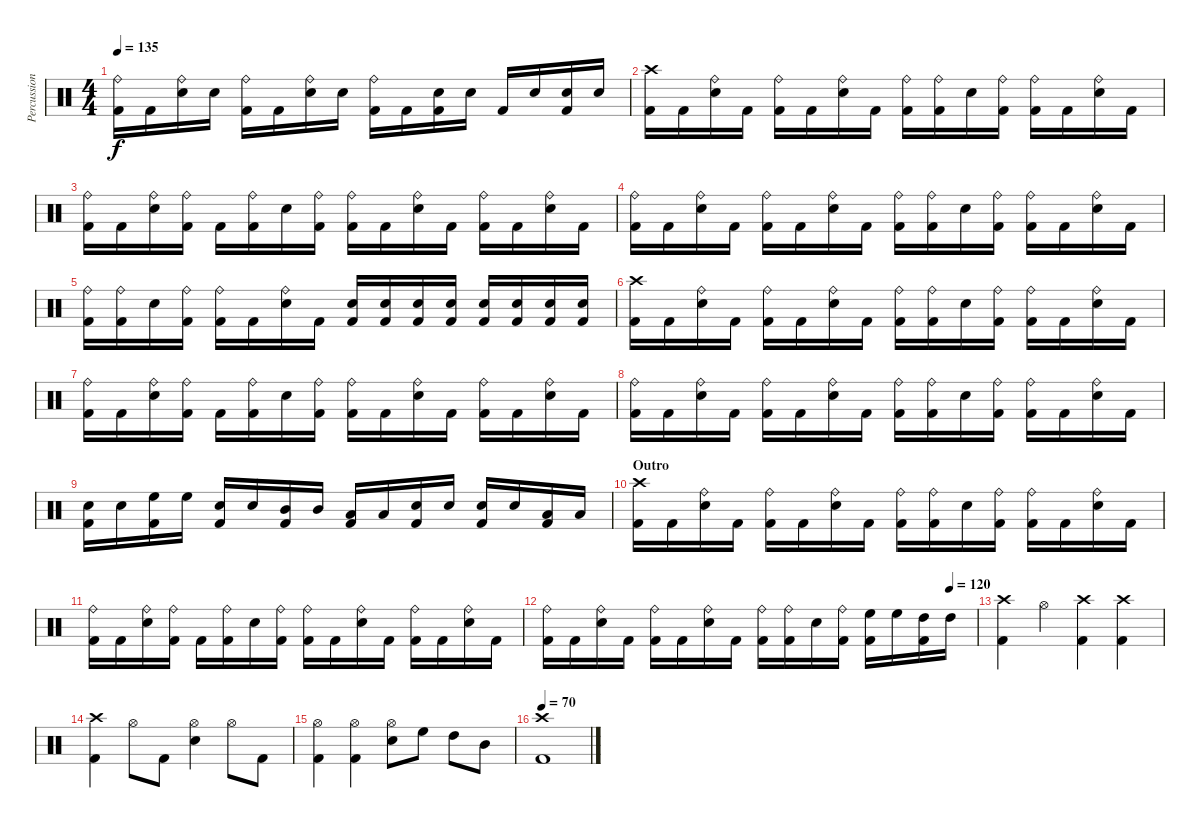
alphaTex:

\track ("Percussion" "Percussion") {instrument percussion}
\staff {score}
\articulation defaults
\ts (4 4)
\tempo 135
\clef neutral
\ks c
("Kick (hit) 2" "Ride (bell)").16{dy f} "Kick (hit) 2".16 ("Electric Snare (hit)" "Ride (bell)").16 "Electric Snare (hit)".16 ("Kick (hit) 2" "Ride (bell)").16 "Kick (hit) 2".16 ("Electric Snare (hit)" "Ride (bell)").16 "Electric Snare (hit)".16 ("Kick (hit) 2" "Ride (bell)").16 "Kick (hit) 2".16 ("Electric Snare (hit)" "Kick (hit) 2").16 "Electric Snare (hit)".16 "Kick (hit) 2".16 "Electric Snare (hit)".16 ("Electric Snare (hit)" "Kick (hit) 2").16 "Electric Snare (hit)".16 |
("Kick (hit) 2" "Crash high (hit)").16 "Kick (hit) 2".16 ("Electric Snare (hit)" "Ride (bell)").16 "Kick (hit) 2".16 ("Kick (hit) 2" "Ride (bell)").16 "Kick (hit) 2".16 ("Electric Snare (hit)" "Ride (bell)").16 "Kick (hit) 2".16 ("Kick (hit) 2" "Ride (bell)").16 ("Kick (hit) 2" "Ride (bell)").16 "Electric Snare (hit)".16 ("Kick (hit) 2" "Ride (bell)").16 ("Kick (hit) 2" "Ride (bell)").16 "Kick (hit) 2".16 ("Electric Snare (hit)" "Ride (bell)").16 "Kick (hit) 2".16 |
("Kick (hit) 2" "Ride (bell)").16 "Kick (hit) 2".16 ("Electric Snare (hit)" "Ride (bell)").16 ("Kick (hit) 2" "Ride (bell)").16 "Kick (hit) 2".16 ("Kick (hit) 2" "Ride (bell)").16 "Electric Snare (hit)".16 ("Kick (hit) 2" "Ride (bell)").16 ("Kick (hit) 2" "Ride (bell)").16 "Kick (hit) 2".16 ("Electric Snare (hit)" "Ride (bell)").16 "Kick (hit) 2".16 ("Kick (hit) 2" "Ride (bell)").16 "Kick (hit) 2".16 ("Electric Snare (hit)" "Ride (bell)").16 "Kick (hit) 2".16 |
("Kick (hit) 2" "Ride (bell)").16 "Kick (hit) 2".16 ("Electric Snare (hit)" "Ride (bell)").16 "Kick (hit) 2".16 ("Kick (hit) 2" "Ride (bell)").16 "Kick (hit) 2".16 ("Electric Snare (hit)" "Ride (bell)").16 "Kick (hit) 2".16 ("Kick (hit) 2" "Ride (bell)").16 ("Kick (hit) 2" "Ride (bell)").16 "Electric Snare (hit)".16 ("Kick (hit) 2" "Ride (bell)").16 ("Kick (hit) 2" "Ride (bell)").16 "Kick (hit) 2".16 ("Electric Snare (hit)" "Ride (bell)").16 "Kick (hit) 2".16 |
("Kick (hit) 2" "Ride (bell)").16 ("Kick (hit) 2" "Ride (bell)").16 "Electric Snare (hit)".16 ("Kick (hit) 2" "Ride (bell)").16 ("Kick (hit) 2" "Ride (bell)").16 "Kick (hit) 2".16 ("Electric Snare (hit)" "Ride (bell)").16 "Kick (hit) 2".16 ("Electric Snare (hit)" "Kick (hit) 2").16 ("Electric Snare (hit)" "Kick (hit) 2").16 ("Electric Snare (hit)" "Kick (hit) 2").16 ("Electric Snare (hit)" "Kick (hit) 2").16 ("Electric Snare (hit)" "Kick (hit) 2").16 ("Electric Snare (hit)" "Kick (hit) 2").16 ("Electric Snare (hit)" "Kick (hit) 2").16 ("Electric Snare (hit)" "Kick (hit) 2").16 |
("Kick (hit) 2" "Crash high (hit)").16 "Kick (hit) 2".16 ("Electric Snare (hit)" "Ride (bell)").16 "Kick (hit) 2".16 ("Kick (hit) 2" "Ride (bell)").16 "Kick (hit) 2".16 ("Electric Snare (hit)" "Ride (bell)").16 "Kick (hit) 2".16 ("Kick (hit) 2" "Ride (bell)").16 ("Kick (hit) 2" "Ride (bell)").16 "Electric Snare (hit)".16 ("Kick (hit) 2" "Ride (bell)").16 ("Kick (hit) 2" "Ride (bell)").16 "Kick (hit) 2".16 ("Electric Snare (hit)" "Ride (bell)").16 "Kick (hit) 2".16 |
("Kick (hit) 2" "Ride (bell)").16 "Kick (hit) 2".16 ("Electric Snare (hit)" "Ride (bell)").16 ("Kick (hit) 2" "Ride (bell)").16 "Kick (hit) 2".16 ("Kick (hit) 2" "Ride (bell)").16 "Electric Snare (hit)".16 ("Kick (hit) 2" "Ride (bell)").16 ("Kick (hit) 2" "Ride (bell)").16 "Kick (hit) 2".16 ("Electric Snare (hit)" "Ride (bell)").16 "Kick (hit) 2".16 ("Kick (hit) 2" "Ride (bell)").16 "Kick (hit) 2".16 ("Electric Snare (hit)" "Ride (bell)").16 "Kick (hit) 2".16 |
("Kick (hit) 2" "Ride (bell)").16 "Kick (hit) 2".16 ("Electric Snare (hit)" "Ride (bell)").16 "Kick (hit) 2".16 ("Kick (hit) 2" "Ride (bell)").16 "Kick (hit) 2".16 ("Electric Snare (hit)" "Ride (bell)").16 "Kick (hit) 2".16 ("Kick (hit) 2" "Ride (bell)").16 ("Kick (hit) 2" "Ride (bell)").16 "Electric Snare (hit)".16 ("Kick (hit) 2" "Ride (bell)").16 ("Kick (hit) 2" "Ride (bell)").16 "Kick (hit) 2".16 ("Electric Snare (hit)" "Ride (bell)").16 "Kick (hit) 2".16 |
("Electric Snare (hit)" "Kick (hit) 2").16 "Electric Snare (hit)".16 ("High Floor Tom (hit)" "Kick (hit) 2").16 "High Floor Tom (hit)".16 ("Electric Snare (hit)" "Kick (hit) 2").16 "Electric Snare (hit)".16 ("Mid Tom (hit)" "Kick (hit) 2").16 "Mid Tom (hit)".16 ("Low Tom (hit)" "Kick (hit) 2").16 "Low Tom (hit)".16 ("Electric Snare (hit)" "Kick (hit) 2").16 "Electric Snare (hit)".16 ("Electric Snare (hit)" "Kick (hit) 2").16 "Electric Snare (hit)".16 ("Low Tom (hit)" "Kick (hit) 2").16 "Low Tom (hit)".16 |
\section ("" "Outro")
("Kick (hit) 2" "Crash high (hit)").16 "Kick (hit) 2".16 ("Electric Snare (hit)" "Ride (bell)").16 "Kick (hit) 2".16 ("Kick (hit) 2" "Ride (bell)").16 "Kick (hit) 2".16 ("Electric Snare (hit)" "Ride (bell)").16 "Kick (hit) 2".16 ("Kick (hit) 2" "Ride (bell)").16 ("Kick (hit) 2" "Ride (bell)").16 "Electric Snare (hit)".16 ("Kick (hit) 2" "Ride (bell)").16 ("Kick (hit) 2" "Ride (bell)").16 "Kick (hit) 2".16 ("Electric Snare (hit)" "Ride (bell)").16 "Kick (hit) 2".16 |
("Kick (hit) 2" "Ride (bell)").16 "Kick (hit) 2".16 ("Electric Snare (hit)" "Ride (bell)").16 ("Kick (hit) 2" "Ride (bell)").16 "Kick (hit) 2".16 ("Kick (hit) 2" "Ride (bell)").16 "Electric Snare (hit)".16 ("Kick (hit) 2" "Ride (bell)").16 ("Kick (hit) 2" "Ride (bell)").16 "Kick (hit) 2".16 ("Electric Snare (hit)" "Ride (bell)").16 "Kick (hit) 2".16 ("Kick (hit) 2" "Ride (bell)").16 "Kick (hit) 2".16 ("Electric Snare (hit)" "Ride (bell)").16 "Kick (hit) 2".16 |
\tempo (120 0.9375)
("Kick (hit) 2" "Ride (bell)").16 "Kick (hit) 2".16 ("Electric Snare (hit)" "Ride (bell)").16 "Kick (hit) 2".16 ("Kick (hit) 2" "Ride (bell)").16 "Kick (hit) 2".16 ("Electric Snare (hit)" "Ride (bell)").16 "Kick (hit) 2".16 ("Kick (hit) 2" "Ride (bell)").16 ("Kick (hit) 2" "Ride (bell)").16 "Electric Snare (hit)".16 ("Kick (hit) 2" "Ride (bell)").16 ("High Floor Tom (hit)" "Kick (hit) 2").16 "High Floor Tom (hit)".16 ("High Tom (hit)" "Kick (hit) 2").16 "High Tom (hit)".16 |
("Kick (hit) 2" "Crash high (hit)").4 "Hi-Hat (open)".4 ("Kick (hit) 2" "Crash high (hit)").4 ("Kick (hit) 2" "Crash high (hit)").4 |
("Kick (hit) 2" "Crash high (hit)").4 "Hi-Hat (open)".8 "Kick (hit) 2".8 ("Electric Snare (hit)" "Hi-Hat (open)").4 "Hi-Hat (open)".8 "Kick (hit) 2".8 |
("Kick (hit) 2" "Hi-Hat (open)").4 ("Kick (hit) 2" "Hi-Hat (open)").4 ("Electric Snare (hit)" "Hi-Hat (open)").8 "High Floor Tom (hit)".8 "High Tom (hit)".8 "Mid Tom (hit)".8 |
\tempo 70
("Kick (hit) 2" "Crash high (hit)").1
